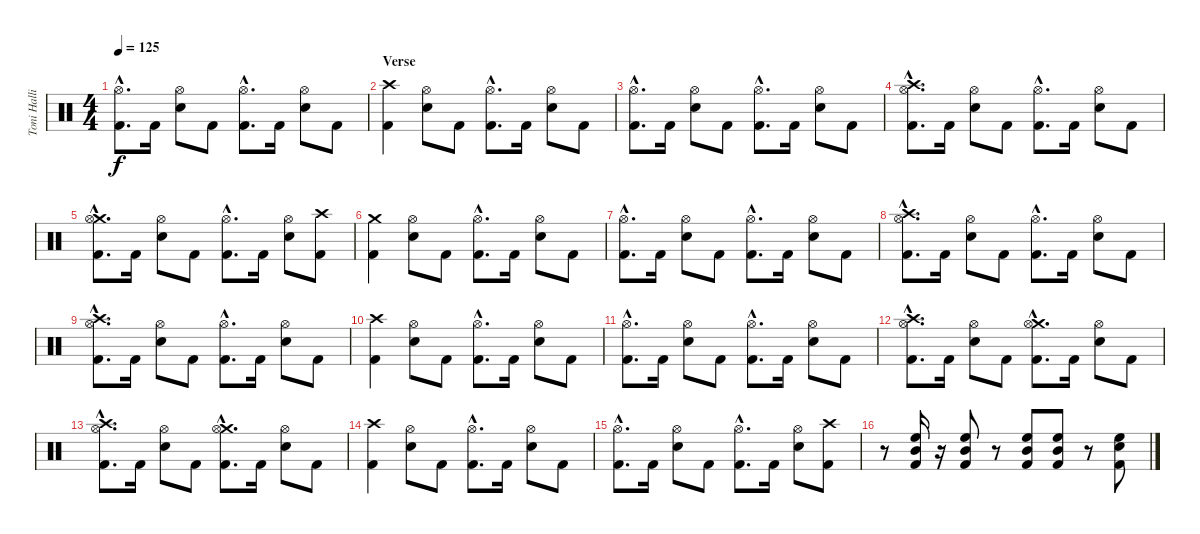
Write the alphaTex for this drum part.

\track ("Toni Hallio" "Toni Halli") {instrument percussion}
\staff {score}
\articulation defaults
\ts (4 4)
\tempo 125
\clef neutral
\ks c
("Hi-Hat (open)"{hac} "Kick (hit) 2"{hac}).8{d dy f} "Kick (hit) 2".16 ("Snare (hit) 2" "Hi-Hat (open)").8 "Kick (hit) 2".8 ("Hi-Hat (open)"{hac} "Kick (hit) 2"{hac}).8{d} "Kick (hit) 2".16 ("Snare (hit) 2" "Hi-Hat (open)").8 "Kick (hit) 2".8 |
\section ("" "Verse")
("Crash high (hit)" "Kick (hit) 2").4 ("Snare (hit) 2" "Hi-Hat (open)").8 "Kick (hit) 2".8 ("Hi-Hat (open)"{hac} "Kick (hit) 2"{hac}).8{d} "Kick (hit) 2".16 ("Snare (hit) 2" "Hi-Hat (open)").8 "Kick (hit) 2".8 |
("Hi-Hat (open)"{hac} "Kick (hit) 2"{hac}).8{d} "Kick (hit) 2".16 ("Snare (hit) 2" "Hi-Hat (open)").8 "Kick (hit) 2".8 ("Hi-Hat (open)"{hac} "Kick (hit) 2"{hac}).8{d} "Kick (hit) 2".16 ("Snare (hit) 2" "Hi-Hat (open)").8 "Kick (hit) 2".8 |
("Crash high (hit)"{hac} "Hi-Hat (open)"{hac} "Kick (hit) 2"{hac}).8{d} "Kick (hit) 2".16 ("Snare (hit) 2" "Hi-Hat (open)").8 "Kick (hit) 2".8 ("Hi-Hat (open)"{hac} "Kick (hit) 2"{hac}).8{d} "Kick (hit) 2".16 ("Snare (hit) 2" "Hi-Hat (open)").8 "Kick (hit) 2".8 |
("Crash medium (hit)"{hac} "Hi-Hat (open)"{hac} "Kick (hit) 2"{hac}).8{d} "Kick (hit) 2".16 ("Snare (hit) 2" "Hi-Hat (open)").8 "Kick (hit) 2".8 ("Hi-Hat (open)"{hac} "Kick (hit) 2"{hac}).8{d} "Kick (hit) 2".16 ("Snare (hit) 2" "Hi-Hat (open)").8 ("Crash high (hit)" "Kick (hit) 2").8 |
("Crash medium (hit)" "Kick (hit) 2").4 ("Snare (hit) 2" "Hi-Hat (open)").8 "Kick (hit) 2".8 ("Hi-Hat (open)"{hac} "Kick (hit) 2"{hac}).8{d} "Kick (hit) 2".16 ("Snare (hit) 2" "Hi-Hat (open)").8 "Kick (hit) 2".8 |
("Hi-Hat (open)"{hac} "Kick (hit) 2"{hac}).8{d} "Kick (hit) 2".16 ("Snare (hit) 2" "Hi-Hat (open)").8 "Kick (hit) 2".8 ("Hi-Hat (open)"{hac} "Kick (hit) 2"{hac}).8{d} "Kick (hit) 2".16 ("Snare (hit) 2" "Hi-Hat (open)").8 "Kick (hit) 2".8 |
("Crash high (hit)"{hac} "Hi-Hat (open)"{hac} "Kick (hit) 2"{hac}).8{d} "Kick (hit) 2".16 ("Snare (hit) 2" "Hi-Hat (open)").8 "Kick (hit) 2".8 ("Hi-Hat (open)"{hac} "Kick (hit) 2"{hac}).8{d} "Kick (hit) 2".16 ("Snare (hit) 2" "Hi-Hat (open)").8 "Kick (hit) 2".8 |
("Crash high (hit)"{hac} "Hi-Hat (open)"{hac} "Kick (hit) 2"{hac}).8{d} "Kick (hit) 2".16 ("Snare (hit) 2" "Hi-Hat (open)").8 "Kick (hit) 2".8 ("Hi-Hat (open)"{hac} "Kick (hit) 2"{hac}).8{d} "Kick (hit) 2".16 ("Snare (hit) 2" "Hi-Hat (open)").8 "Kick (hit) 2".8 |
("Crash high (hit)" "Kick (hit) 2").4 ("Snare (hit) 2" "Hi-Hat (open)").8 "Kick (hit) 2".8 ("Hi-Hat (open)"{hac} "Kick (hit) 2"{hac}).8{d} "Kick (hit) 2".16 ("Snare (hit) 2" "Hi-Hat (open)").8 "Kick (hit) 2".8 |
("Hi-Hat (open)"{hac} "Kick (hit) 2"{hac}).8{d} "Kick (hit) 2".16 ("Snare (hit) 2" "Hi-Hat (open)").8 "Kick (hit) 2".8 ("Hi-Hat (open)"{hac} "Kick (hit) 2"{hac}).8{d} "Kick (hit) 2".16 ("Snare (hit) 2" "Hi-Hat (open)").8 "Kick (hit) 2".8 |
("Crash high (hit)"{hac} "Hi-Hat (open)"{hac} "Kick (hit) 2"{hac}).8{d} "Kick (hit) 2".16 ("Snare (hit) 2" "Hi-Hat (open)").8 "Kick (hit) 2".8 ("Crash medium (hit)"{hac} "Hi-Hat (open)"{hac} "Kick (hit) 2"{hac}).8{d} "Kick (hit) 2".16 ("Snare (hit) 2" "Hi-Hat (open)").8 "Kick (hit) 2".8 |
("Crash high (hit)"{hac} "Hi-Hat (open)"{hac} "Kick (hit) 2"{hac}).8{d} "Kick (hit) 2".16 ("Snare (hit) 2" "Hi-Hat (open)").8 "Kick (hit) 2".8 ("Crash medium (hit)"{hac} "Hi-Hat (open)"{hac} "Kick (hit) 2"{hac}).8{d} "Kick (hit) 2".16 ("Snare (hit) 2" "Hi-Hat (open)").8 "Kick (hit) 2".8 |
("Crash high (hit)" "Kick (hit) 2").4 ("Snare (hit) 2" "Hi-Hat (open)").8 "Kick (hit) 2".8 ("Hi-Hat (open)"{hac} "Kick (hit) 2"{hac}).8{d} "Kick (hit) 2".16 ("Snare (hit) 2" "Hi-Hat (open)").8 "Kick (hit) 2".8 |
("Hi-Hat (open)"{hac} "Kick (hit) 2"{hac}).8{d} "Kick (hit) 2".16 ("Snare (hit) 2" "Hi-Hat (open)").8 "Kick (hit) 2".8 ("Hi-Hat (open)"{hac} "Kick (hit) 2"{hac}).8{d} "Kick (hit) 2".16 ("Snare (hit) 2" "Hi-Hat (open)").8 ("Crash high (hit)" "Kick (hit) 2").8 |
r.8 ("High Floor Tom (hit)" "Mid Tom (hit)" "Kick (hit) 2").16 r.16 ("High Floor Tom (hit)" "Mid Tom (hit)" "Kick (hit) 2").8 r.8 ("High Floor Tom (hit)" "Mid Tom (hit)" "Kick (hit) 2").8 ("High Floor Tom (hit)" "Mid Tom (hit)" "Kick (hit) 2").8 r.8 ("Snare (hit) 2" "High Floor Tom (hit)" "Kick (hit) 2").8
